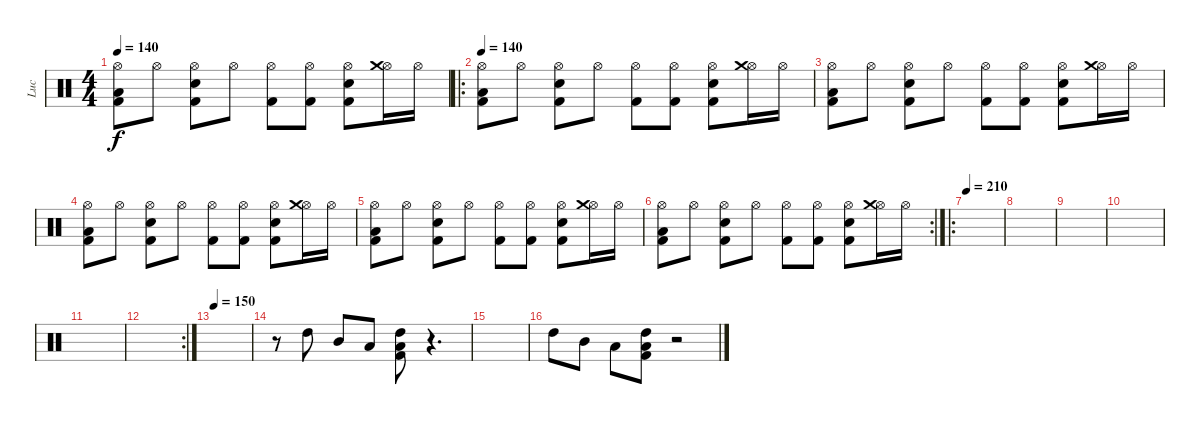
\track ("Luc" "Luc") {instrument percussion}
\staff {score}
\articulation defaults
\ts (4 4)
\tempo 140
\clef neutral
\ks c
("Hi-Hat (open)" "Low Tom (hit)" "Kick (hit) 2").8{dy f} "Hi-Hat (open)".8 ("Hi-Hat (open)" "Snare (hit) 2" "Kick (hit) 2").8 "Hi-Hat (open)".8 ("Hi-Hat (open)" "Kick (hit) 2").8 ("Hi-Hat (open)" "Kick (hit) 2").8 ("Hi-Hat (open)" "Snare (hit) 2" "Kick (hit) 2").8 ("Hi-Hat (open)" "Crash medium (hit)").16 "Hi-Hat (open)".16 |
\ro
\tempo 140
("Hi-Hat (open)" "Low Tom (hit)" "Kick (hit) 2").8 "Hi-Hat (open)".8 ("Hi-Hat (open)" "Snare (hit) 2" "Kick (hit) 2").8 "Hi-Hat (open)".8 ("Hi-Hat (open)" "Kick (hit) 2").8 ("Hi-Hat (open)" "Kick (hit) 2").8 ("Hi-Hat (open)" "Snare (hit) 2" "Kick (hit) 2").8 ("Hi-Hat (open)" "Crash medium (hit)").16 "Hi-Hat (open)".16 |
("Hi-Hat (open)" "Low Tom (hit)" "Kick (hit) 2").8 "Hi-Hat (open)".8 ("Hi-Hat (open)" "Snare (hit) 2" "Kick (hit) 2").8 "Hi-Hat (open)".8 ("Hi-Hat (open)" "Kick (hit) 2").8 ("Hi-Hat (open)" "Kick (hit) 2").8 ("Hi-Hat (open)" "Snare (hit) 2" "Kick (hit) 2").8 ("Hi-Hat (open)" "Crash medium (hit)").16 "Hi-Hat (open)".16 |
("Hi-Hat (open)" "Low Tom (hit)" "Kick (hit) 2").8 "Hi-Hat (open)".8 ("Hi-Hat (open)" "Snare (hit) 2" "Kick (hit) 2").8 "Hi-Hat (open)".8 ("Hi-Hat (open)" "Kick (hit) 2").8 ("Hi-Hat (open)" "Kick (hit) 2").8 ("Hi-Hat (open)" "Snare (hit) 2" "Kick (hit) 2").8 ("Hi-Hat (open)" "Crash medium (hit)").16 "Hi-Hat (open)".16 |
("Hi-Hat (open)" "Low Tom (hit)" "Kick (hit) 2").8 "Hi-Hat (open)".8 ("Hi-Hat (open)" "Snare (hit) 2" "Kick (hit) 2").8 "Hi-Hat (open)".8 ("Hi-Hat (open)" "Kick (hit) 2").8 ("Hi-Hat (open)" "Kick (hit) 2").8 ("Hi-Hat (open)" "Snare (hit) 2" "Kick (hit) 2").8 ("Hi-Hat (open)" "Crash medium (hit)").16 "Hi-Hat (open)".16 |
\rc 2
("Hi-Hat (open)" "Low Tom (hit)" "Kick (hit) 2").8 "Hi-Hat (open)".8 ("Hi-Hat (open)" "Snare (hit) 2" "Kick (hit) 2").8 "Hi-Hat (open)".8 ("Hi-Hat (open)" "Kick (hit) 2").8 ("Hi-Hat (open)" "Kick (hit) 2").8 ("Hi-Hat (open)" "Snare (hit) 2" "Kick (hit) 2").8 ("Hi-Hat (open)" "Crash medium (hit)").16 "Hi-Hat (open)".16 |
\ro
\tempo 210
|
|
|
|
|
\rc 2
|
\tempo 150
|
r.8 "High Tom (hit)".8 "Mid Tom (hit)".8 "Low Tom (hit)".8 ("High Tom (hit)" "Low Tom (hit)" "Kick (hit) 2").8 r.4{d} |
|
"High Tom (hit)".8 "Mid Tom (hit)".8 "Low Tom (hit)".8 ("High Tom (hit)" "Low Tom (hit)" "Kick (hit) 2").8 r.2
